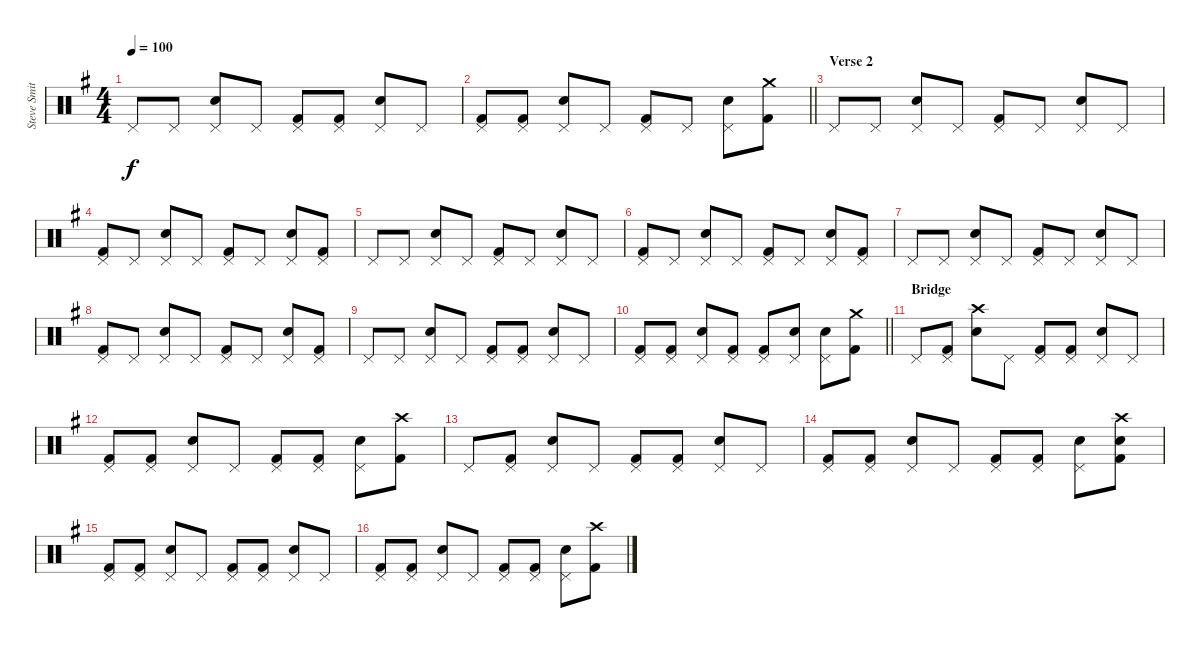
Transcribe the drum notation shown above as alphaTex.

\track ("Steve Smith" "Steve Smit") {instrument percussion}
\staff {score}
\articulation defaults
\ts (4 4)
\tempo 100
\clef neutral
\ks g "Pedal Hi-Hat (hit)".8{dy f} "Pedal Hi-Hat (hit)".8
("Pedal Hi-Hat (hit)" "Snare (hit) 2").8 "Pedal Hi-Hat (hit)".8 ("Pedal Hi-Hat (hit)" "Kick (hit) 2").8 ("Pedal Hi-Hat (hit)" "Kick (hit) 2").8 ("Pedal Hi-Hat (hit)" "Snare (hit) 2").8 "Pedal Hi-Hat (hit)".8 |
\barLineRight lightlight
("Pedal Hi-Hat (hit)" "Kick (hit) 2").8 ("Pedal Hi-Hat (hit)" "Kick (hit) 2").8 ("Pedal Hi-Hat (hit)" "Snare (hit) 2").8 "Pedal Hi-Hat (hit)".8 ("Pedal Hi-Hat (hit)" "Kick (hit) 2").8 "Pedal Hi-Hat (hit)".8 ("Pedal Hi-Hat (hit)" "Snare (hit) 2").8 ("Crash medium (hit)" "Kick (hit) 2").8 |
\section ("" "Verse 2")
"Pedal Hi-Hat (hit)".8 "Pedal Hi-Hat (hit)".8 ("Pedal Hi-Hat (hit)" "Snare (hit) 2").8 "Pedal Hi-Hat (hit)".8 ("Pedal Hi-Hat (hit)" "Kick (hit) 2").8 "Pedal Hi-Hat (hit)".8 ("Pedal Hi-Hat (hit)" "Snare (hit) 2").8 "Pedal Hi-Hat (hit)".8 |
("Pedal Hi-Hat (hit)" "Kick (hit) 2").8 "Pedal Hi-Hat (hit)".8 ("Pedal Hi-Hat (hit)" "Snare (hit) 2").8 "Pedal Hi-Hat (hit)".8 ("Pedal Hi-Hat (hit)" "Kick (hit) 2").8 "Pedal Hi-Hat (hit)".8 ("Pedal Hi-Hat (hit)" "Snare (hit) 2").8 ("Pedal Hi-Hat (hit)" "Kick (hit) 2").8 |
"Pedal Hi-Hat (hit)".8 "Pedal Hi-Hat (hit)".8 ("Pedal Hi-Hat (hit)" "Snare (hit) 2").8 "Pedal Hi-Hat (hit)".8 ("Pedal Hi-Hat (hit)" "Kick (hit) 2").8 "Pedal Hi-Hat (hit)".8 ("Pedal Hi-Hat (hit)" "Snare (hit) 2").8 "Pedal Hi-Hat (hit)".8 |
("Pedal Hi-Hat (hit)" "Kick (hit) 2").8 "Pedal Hi-Hat (hit)".8 ("Pedal Hi-Hat (hit)" "Snare (hit) 2").8 "Pedal Hi-Hat (hit)".8 ("Pedal Hi-Hat (hit)" "Kick (hit) 2").8 "Pedal Hi-Hat (hit)".8 ("Pedal Hi-Hat (hit)" "Snare (hit) 2").8 ("Pedal Hi-Hat (hit)" "Kick (hit) 2").8 |
"Pedal Hi-Hat (hit)".8 "Pedal Hi-Hat (hit)".8 ("Pedal Hi-Hat (hit)" "Snare (hit) 2").8 "Pedal Hi-Hat (hit)".8 ("Pedal Hi-Hat (hit)" "Kick (hit) 2").8 "Pedal Hi-Hat (hit)".8 ("Pedal Hi-Hat (hit)" "Snare (hit) 2").8 "Pedal Hi-Hat (hit)".8 |
("Pedal Hi-Hat (hit)" "Kick (hit) 2").8 "Pedal Hi-Hat (hit)".8 ("Pedal Hi-Hat (hit)" "Snare (hit) 2").8 "Pedal Hi-Hat (hit)".8 ("Pedal Hi-Hat (hit)" "Kick (hit) 2").8 "Pedal Hi-Hat (hit)".8 ("Pedal Hi-Hat (hit)" "Snare (hit) 2").8 ("Pedal Hi-Hat (hit)" "Kick (hit) 2").8 |
"Pedal Hi-Hat (hit)".8 "Pedal Hi-Hat (hit)".8 ("Pedal Hi-Hat (hit)" "Snare (hit) 2").8 "Pedal Hi-Hat (hit)".8 ("Pedal Hi-Hat (hit)" "Kick (hit) 2").8 ("Pedal Hi-Hat (hit)" "Kick (hit) 2").8 ("Pedal Hi-Hat (hit)" "Snare (hit) 2").8 "Pedal Hi-Hat (hit)".8 |
\barLineRight lightlight
("Pedal Hi-Hat (hit)" "Kick (hit) 2").8 ("Pedal Hi-Hat (hit)" "Kick (hit) 2").8 ("Pedal Hi-Hat (hit)" "Snare (hit) 2").8 ("Pedal Hi-Hat (hit)" "Kick (hit) 2").8 ("Pedal Hi-Hat (hit)" "Kick (hit) 2").8 ("Pedal Hi-Hat (hit)" "Snare (hit) 2").8 ("Pedal Hi-Hat (hit)" "Snare (hit) 2").8 ("Crash medium (hit)" "Kick (hit) 2").8 |
\section ("" "Bridge")
"Pedal Hi-Hat (hit)".8 ("Pedal Hi-Hat (hit)" "Kick (hit) 2").8 ("Crash high (hit)" "Snare (hit) 2").8 "Pedal Hi-Hat (hit)".8 ("Pedal Hi-Hat (hit)" "Kick (hit) 2").8 ("Pedal Hi-Hat (hit)" "Kick (hit) 2").8 ("Pedal Hi-Hat (hit)" "Snare (hit) 2").8 "Pedal Hi-Hat (hit)".8 |
("Pedal Hi-Hat (hit)" "Kick (hit) 2").8 ("Pedal Hi-Hat (hit)" "Kick (hit) 2").8 ("Pedal Hi-Hat (hit)" "Snare (hit) 2").8 "Pedal Hi-Hat (hit)".8 ("Pedal Hi-Hat (hit)" "Kick (hit) 2").8 ("Pedal Hi-Hat (hit)" "Kick (hit) 2").8 ("Pedal Hi-Hat (hit)" "Snare (hit) 2").8 ("Crash high (hit)" "Kick (hit) 2").8 |
"Pedal Hi-Hat (hit)".8 ("Pedal Hi-Hat (hit)" "Kick (hit) 2").8 ("Pedal Hi-Hat (hit)" "Snare (hit) 2").8 "Pedal Hi-Hat (hit)".8 ("Pedal Hi-Hat (hit)" "Kick (hit) 2").8 ("Pedal Hi-Hat (hit)" "Kick (hit) 2").8 ("Pedal Hi-Hat (hit)" "Snare (hit) 2").8 "Pedal Hi-Hat (hit)".8 |
("Pedal Hi-Hat (hit)" "Kick (hit) 2").8 ("Pedal Hi-Hat (hit)" "Kick (hit) 2").8 ("Pedal Hi-Hat (hit)" "Snare (hit) 2").8 "Pedal Hi-Hat (hit)".8 ("Pedal Hi-Hat (hit)" "Kick (hit) 2").8 ("Pedal Hi-Hat (hit)" "Kick (hit) 2").8 ("Pedal Hi-Hat (hit)" "Snare (hit) 2").8 ("Crash high (hit)" "Snare (hit) 2" "Kick (hit) 2").8 |
("Pedal Hi-Hat (hit)" "Kick (hit) 2").8 ("Pedal Hi-Hat (hit)" "Kick (hit) 2").8 ("Pedal Hi-Hat (hit)" "Snare (hit) 2").8 "Pedal Hi-Hat (hit)".8 ("Pedal Hi-Hat (hit)" "Kick (hit) 2").8 ("Pedal Hi-Hat (hit)" "Kick (hit) 2").8 ("Pedal Hi-Hat (hit)" "Snare (hit) 2").8 "Pedal Hi-Hat (hit)".8 |
("Pedal Hi-Hat (hit)" "Kick (hit) 2").8 ("Pedal Hi-Hat (hit)" "Kick (hit) 2").8 ("Pedal Hi-Hat (hit)" "Snare (hit) 2").8 "Pedal Hi-Hat (hit)".8 ("Pedal Hi-Hat (hit)" "Kick (hit) 2").8 ("Pedal Hi-Hat (hit)" "Kick (hit) 2").8 ("Pedal Hi-Hat (hit)" "Snare (hit) 2").8 ("Crash high (hit)" "Kick (hit) 2").8
